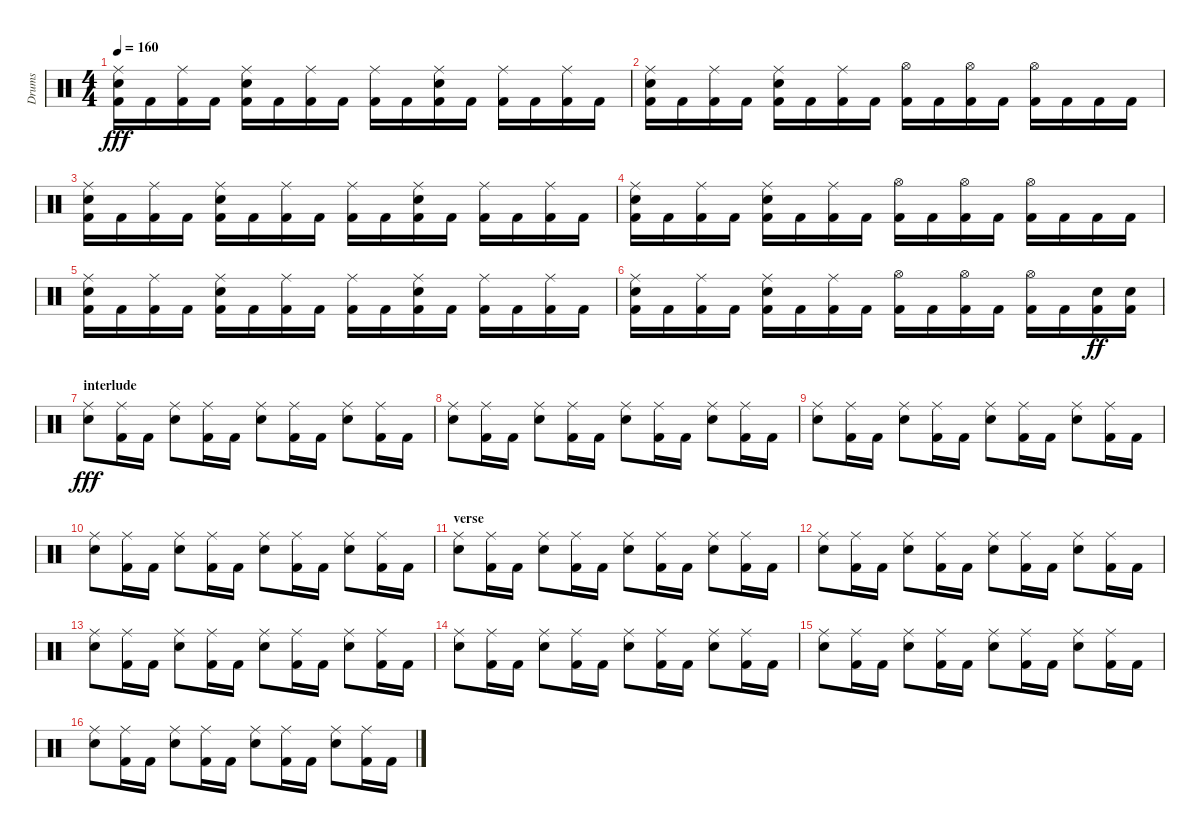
\track ("Drums" "Drums") {instrument percussion}
\staff {score}
\articulation defaults
\ts (4 4)
\tempo 160
\clef neutral
\ks c
("Kick (hit) 2" "Electric Snare (hit)" "Ride (middle)").16{dy fff} "Kick (hit) 2".16 ("Kick (hit) 2" "Ride (middle)").16 "Kick (hit) 2".16 ("Kick (hit) 2" "Electric Snare (hit)" "Ride (middle)").16 "Kick (hit) 2".16 ("Kick (hit) 2" "Ride (middle)").16 "Kick (hit) 2".16 ("Kick (hit) 2" "Ride (middle)").16 "Kick (hit) 2".16 ("Kick (hit) 2" "Electric Snare (hit)" "Ride (middle)").16 "Kick (hit) 2".16 ("Kick (hit) 2" "Ride (middle)").16 "Kick (hit) 2".16 ("Kick (hit) 2" "Ride (middle)").16 "Kick (hit) 2".16 |
("Kick (hit) 2" "Electric Snare (hit)" "Ride (middle)").16 "Kick (hit) 2".16 ("Kick (hit) 2" "Ride (middle)").16 "Kick (hit) 2".16 ("Kick (hit) 2" "Electric Snare (hit)" "Ride (middle)").16 "Kick (hit) 2".16 ("Kick (hit) 2" "Ride (middle)").16 "Kick (hit) 2".16 ("Kick (hit) 2" "Hi-Hat (open)").16 "Kick (hit) 2".16 ("Kick (hit) 2" "Hi-Hat (open)").16 "Kick (hit) 2".16 ("Kick (hit) 2" "Hi-Hat (open)").16 "Kick (hit) 2".16 "Kick (hit) 2".16 "Kick (hit) 2".16 |
("Kick (hit) 2" "Electric Snare (hit)" "Ride (middle)").16 "Kick (hit) 2".16 ("Kick (hit) 2" "Ride (middle)").16 "Kick (hit) 2".16 ("Kick (hit) 2" "Electric Snare (hit)" "Ride (middle)").16 "Kick (hit) 2".16 ("Kick (hit) 2" "Ride (middle)").16 "Kick (hit) 2".16 ("Kick (hit) 2" "Ride (middle)").16 "Kick (hit) 2".16 ("Kick (hit) 2" "Electric Snare (hit)" "Ride (middle)").16 "Kick (hit) 2".16 ("Kick (hit) 2" "Ride (middle)").16 "Kick (hit) 2".16 ("Kick (hit) 2" "Ride (middle)").16 "Kick (hit) 2".16 |
("Kick (hit) 2" "Electric Snare (hit)" "Ride (middle)").16 "Kick (hit) 2".16 ("Kick (hit) 2" "Ride (middle)").16 "Kick (hit) 2".16 ("Kick (hit) 2" "Electric Snare (hit)" "Ride (middle)").16 "Kick (hit) 2".16 ("Kick (hit) 2" "Ride (middle)").16 "Kick (hit) 2".16 ("Kick (hit) 2" "Hi-Hat (open)").16 "Kick (hit) 2".16 ("Kick (hit) 2" "Hi-Hat (open)").16 "Kick (hit) 2".16 ("Kick (hit) 2" "Hi-Hat (open)").16 "Kick (hit) 2".16 "Kick (hit) 2".16 "Kick (hit) 2".16 |
("Kick (hit) 2" "Electric Snare (hit)" "Ride (middle)").16 "Kick (hit) 2".16 ("Kick (hit) 2" "Ride (middle)").16 "Kick (hit) 2".16 ("Kick (hit) 2" "Electric Snare (hit)" "Ride (middle)").16 "Kick (hit) 2".16 ("Kick (hit) 2" "Ride (middle)").16 "Kick (hit) 2".16 ("Kick (hit) 2" "Ride (middle)").16 "Kick (hit) 2".16 ("Kick (hit) 2" "Electric Snare (hit)" "Ride (middle)").16 "Kick (hit) 2".16 ("Kick (hit) 2" "Ride (middle)").16 "Kick (hit) 2".16 ("Kick (hit) 2" "Ride (middle)").16 "Kick (hit) 2".16 |
("Kick (hit) 2" "Electric Snare (hit)" "Ride (middle)").16 "Kick (hit) 2".16 ("Kick (hit) 2" "Ride (middle)").16 "Kick (hit) 2".16 ("Kick (hit) 2" "Electric Snare (hit)" "Ride (middle)").16 "Kick (hit) 2".16 ("Kick (hit) 2" "Ride (middle)").16 "Kick (hit) 2".16 ("Kick (hit) 2" "Hi-Hat (open)").16 "Kick (hit) 2".16 ("Kick (hit) 2" "Hi-Hat (open)").16 "Kick (hit) 2".16 ("Kick (hit) 2" "Hi-Hat (open)").16 "Kick (hit) 2".16 ("Kick (hit) 2" "Electric Snare (hit)").16{dy ff} ("Kick (hit) 2" "Electric Snare (hit)").16 |
\section ("" "interlude")
("Electric Snare (hit)" "Ride (middle)").8{dy fff} ("Kick (hit) 2" "Ride (middle)").16 "Kick (hit) 2".16 ("Electric Snare (hit)" "Ride (middle)").8 ("Kick (hit) 2" "Ride (middle)").16 "Kick (hit) 2".16 ("Electric Snare (hit)" "Ride (middle)").8 ("Kick (hit) 2" "Ride (middle)").16 "Kick (hit) 2".16 ("Electric Snare (hit)" "Ride (middle)").8 ("Kick (hit) 2" "Ride (middle)").16 "Kick (hit) 2".16 |
("Electric Snare (hit)" "Ride (middle)").8 ("Kick (hit) 2" "Ride (middle)").16 "Kick (hit) 2".16 ("Electric Snare (hit)" "Ride (middle)").8 ("Kick (hit) 2" "Ride (middle)").16 "Kick (hit) 2".16 ("Electric Snare (hit)" "Ride (middle)").8 ("Kick (hit) 2" "Ride (middle)").16 "Kick (hit) 2".16 ("Electric Snare (hit)" "Ride (middle)").8 ("Kick (hit) 2" "Ride (middle)").16 "Kick (hit) 2".16 |
("Electric Snare (hit)" "Ride (middle)").8 ("Kick (hit) 2" "Ride (middle)").16 "Kick (hit) 2".16 ("Electric Snare (hit)" "Ride (middle)").8 ("Kick (hit) 2" "Ride (middle)").16 "Kick (hit) 2".16 ("Electric Snare (hit)" "Ride (middle)").8 ("Kick (hit) 2" "Ride (middle)").16 "Kick (hit) 2".16 ("Electric Snare (hit)" "Ride (middle)").8 ("Kick (hit) 2" "Ride (middle)").16 "Kick (hit) 2".16 |
("Electric Snare (hit)" "Ride (middle)").8 ("Kick (hit) 2" "Ride (middle)").16 "Kick (hit) 2".16 ("Electric Snare (hit)" "Ride (middle)").8 ("Kick (hit) 2" "Ride (middle)").16 "Kick (hit) 2".16 ("Electric Snare (hit)" "Ride (middle)").8 ("Kick (hit) 2" "Ride (middle)").16 "Kick (hit) 2".16 ("Electric Snare (hit)" "Ride (middle)").8 ("Kick (hit) 2" "Ride (middle)").16 "Kick (hit) 2".16 |
\section ("" "verse")
("Electric Snare (hit)" "Ride (middle)").8 ("Kick (hit) 2" "Ride (middle)").16 "Kick (hit) 2".16 ("Electric Snare (hit)" "Ride (middle)").8 ("Kick (hit) 2" "Ride (middle)").16 "Kick (hit) 2".16 ("Electric Snare (hit)" "Ride (middle)").8 ("Kick (hit) 2" "Ride (middle)").16 "Kick (hit) 2".16 ("Electric Snare (hit)" "Ride (middle)").8 ("Kick (hit) 2" "Ride (middle)").16 "Kick (hit) 2".16 |
("Electric Snare (hit)" "Ride (middle)").8 ("Kick (hit) 2" "Ride (middle)").16 "Kick (hit) 2".16 ("Electric Snare (hit)" "Ride (middle)").8 ("Kick (hit) 2" "Ride (middle)").16 "Kick (hit) 2".16 ("Electric Snare (hit)" "Ride (middle)").8 ("Kick (hit) 2" "Ride (middle)").16 "Kick (hit) 2".16 ("Electric Snare (hit)" "Ride (middle)").8 ("Kick (hit) 2" "Ride (middle)").16 "Kick (hit) 2".16 |
("Electric Snare (hit)" "Ride (middle)").8 ("Kick (hit) 2" "Ride (middle)").16 "Kick (hit) 2".16 ("Electric Snare (hit)" "Ride (middle)").8 ("Kick (hit) 2" "Ride (middle)").16 "Kick (hit) 2".16 ("Electric Snare (hit)" "Ride (middle)").8 ("Kick (hit) 2" "Ride (middle)").16 "Kick (hit) 2".16 ("Electric Snare (hit)" "Ride (middle)").8 ("Kick (hit) 2" "Ride (middle)").16 "Kick (hit) 2".16 |
("Electric Snare (hit)" "Ride (middle)").8 ("Kick (hit) 2" "Ride (middle)").16 "Kick (hit) 2".16 ("Electric Snare (hit)" "Ride (middle)").8 ("Kick (hit) 2" "Ride (middle)").16 "Kick (hit) 2".16 ("Electric Snare (hit)" "Ride (middle)").8 ("Kick (hit) 2" "Ride (middle)").16 "Kick (hit) 2".16 ("Electric Snare (hit)" "Ride (middle)").8 ("Kick (hit) 2" "Ride (middle)").16 "Kick (hit) 2".16 |
("Electric Snare (hit)" "Ride (middle)").8 ("Kick (hit) 2" "Ride (middle)").16 "Kick (hit) 2".16 ("Electric Snare (hit)" "Ride (middle)").8 ("Kick (hit) 2" "Ride (middle)").16 "Kick (hit) 2".16 ("Electric Snare (hit)" "Ride (middle)").8 ("Kick (hit) 2" "Ride (middle)").16 "Kick (hit) 2".16 ("Electric Snare (hit)" "Ride (middle)").8 ("Kick (hit) 2" "Ride (middle)").16 "Kick (hit) 2".16 |
("Electric Snare (hit)" "Ride (middle)").8 ("Kick (hit) 2" "Ride (middle)").16 "Kick (hit) 2".16 ("Electric Snare (hit)" "Ride (middle)").8 ("Kick (hit) 2" "Ride (middle)").16 "Kick (hit) 2".16 ("Electric Snare (hit)" "Ride (middle)").8 ("Kick (hit) 2" "Ride (middle)").16 "Kick (hit) 2".16 ("Electric Snare (hit)" "Ride (middle)").8 ("Kick (hit) 2" "Ride (middle)").16 "Kick (hit) 2".16
